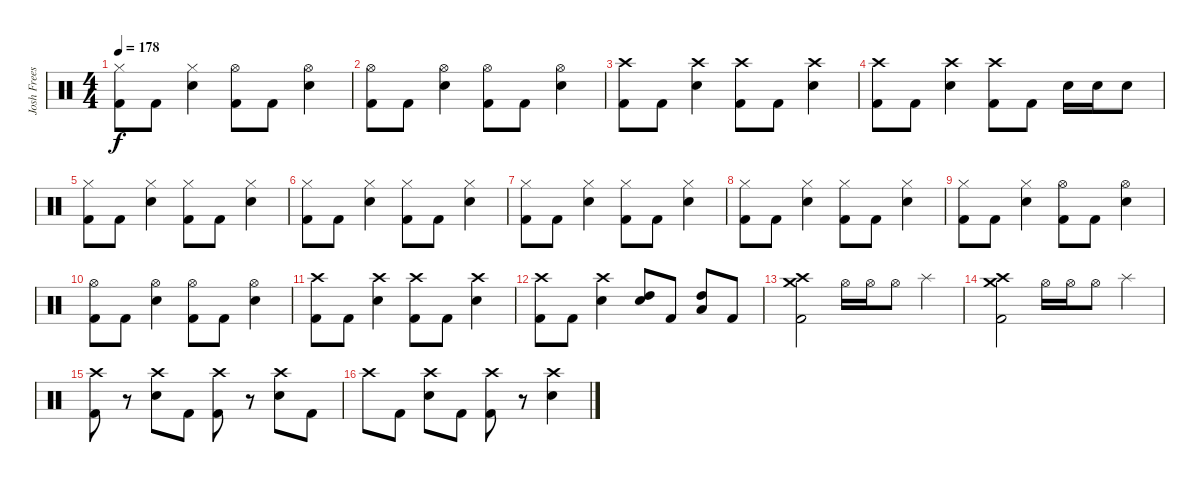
\track ("Josh Freese" "Josh Frees") {instrument percussion}
\staff {score}
\articulation defaults
\ts (4 4)
\tempo 178
\clef neutral
\ks c
("Hi-Hat (closed)" "Kick (hit) 2").8{dy f} "Kick (hit) 2".8 ("Hi-Hat (closed)" "Electric Snare (hit)").4 ("Hi-Hat (open)" "Kick (hit) 2").8 "Kick (hit) 2".8 ("Hi-Hat (open)" "Electric Snare (hit)").4 |
("Hi-Hat (open)" "Kick (hit) 2").8 "Kick (hit) 2".8 ("Hi-Hat (open)" "Electric Snare (hit)").4 ("Hi-Hat (open)" "Kick (hit) 2").8 "Kick (hit) 2".8 ("Hi-Hat (open)" "Electric Snare (hit)").4 |
("Crash high (hit)" "Kick (hit) 2").8 "Kick (hit) 2".8 ("Crash high (hit)" "Electric Snare (hit)").4 ("Crash high (hit)" "Kick (hit) 2").8 "Kick (hit) 2".8 ("Crash high (hit)" "Electric Snare (hit)").4 |
("Crash high (hit)" "Kick (hit) 2").8 "Kick (hit) 2".8 ("Crash high (hit)" "Electric Snare (hit)").4 ("Crash high (hit)" "Kick (hit) 2").8 "Kick (hit) 2".8 "Electric Snare (hit)".16 "Electric Snare (hit)".16 "Electric Snare (hit)".8 |
("Hi-Hat (closed)" "Kick (hit) 2").8 "Kick (hit) 2".8 ("Hi-Hat (closed)" "Electric Snare (hit)").4 ("Hi-Hat (closed)" "Kick (hit) 2").8 "Kick (hit) 2".8 ("Hi-Hat (closed)" "Electric Snare (hit)").4 |
("Hi-Hat (closed)" "Kick (hit) 2").8 "Kick (hit) 2".8 ("Hi-Hat (closed)" "Electric Snare (hit)").4 ("Hi-Hat (closed)" "Kick (hit) 2").8 "Kick (hit) 2".8 ("Hi-Hat (closed)" "Electric Snare (hit)").4 |
("Hi-Hat (closed)" "Kick (hit) 2").8 "Kick (hit) 2".8 ("Hi-Hat (closed)" "Electric Snare (hit)").4 ("Hi-Hat (closed)" "Kick (hit) 2").8 "Kick (hit) 2".8 ("Hi-Hat (closed)" "Electric Snare (hit)").4 |
("Hi-Hat (closed)" "Kick (hit) 2").8 "Kick (hit) 2".8 ("Hi-Hat (closed)" "Electric Snare (hit)").4 ("Hi-Hat (closed)" "Kick (hit) 2").8 "Kick (hit) 2".8 ("Hi-Hat (closed)" "Electric Snare (hit)").4 |
("Hi-Hat (closed)" "Kick (hit) 2").8 "Kick (hit) 2".8 ("Hi-Hat (closed)" "Electric Snare (hit)").4 ("Hi-Hat (open)" "Kick (hit) 2").8 "Kick (hit) 2".8 ("Hi-Hat (open)" "Electric Snare (hit)").4 |
("Hi-Hat (open)" "Kick (hit) 2").8 "Kick (hit) 2".8 ("Hi-Hat (open)" "Electric Snare (hit)").4 ("Hi-Hat (open)" "Kick (hit) 2").8 "Kick (hit) 2".8 ("Hi-Hat (open)" "Electric Snare (hit)").4 |
("Crash high (hit)" "Kick (hit) 2").8 "Kick (hit) 2".8 ("Crash high (hit)" "Electric Snare (hit)").4 ("Crash high (hit)" "Kick (hit) 2").8 "Kick (hit) 2".8 ("Crash high (hit)" "Electric Snare (hit)").4 |
("Crash high (hit)" "Kick (hit) 2").8 "Kick (hit) 2".8 ("Crash high (hit)" "Electric Snare (hit)").4 ("High Tom (hit)" "Electric Snare (hit)").8 "Kick (hit) 2".8 ("Low Floor Tom (hit)" "High Tom (hit)").8 "Kick (hit) 2".8 |
("Crash medium (hit)" "Crash high (hit)" "Kick (hit) 2").2 "Hi-Hat (open)".16 "Hi-Hat (open)".16 "Hi-Hat (open)".8 "Splash (hit)".4 |
("Crash medium (hit)" "Crash high (hit)" "Kick (hit) 2").2 "Hi-Hat (open)".16 "Hi-Hat (open)".16 "Hi-Hat (open)".8 "Splash (hit)".4 |
("Crash high (hit)" "Kick (hit) 2").8 r.8 ("Crash high (hit)" "Electric Snare (hit)").8 "Kick (hit) 2".8 ("Crash high (hit)" "Kick (hit) 2").8 r.8 ("Crash high (hit)" "Electric Snare (hit)").8 "Kick (hit) 2".8 |
"Crash high (hit)".8 "Kick (hit) 2".8 ("Crash high (hit)" "Electric Snare (hit)").8 "Kick (hit) 2".8 ("Crash high (hit)" "Kick (hit) 2").8 r.8 ("Crash high (hit)" "Electric Snare (hit)").4
